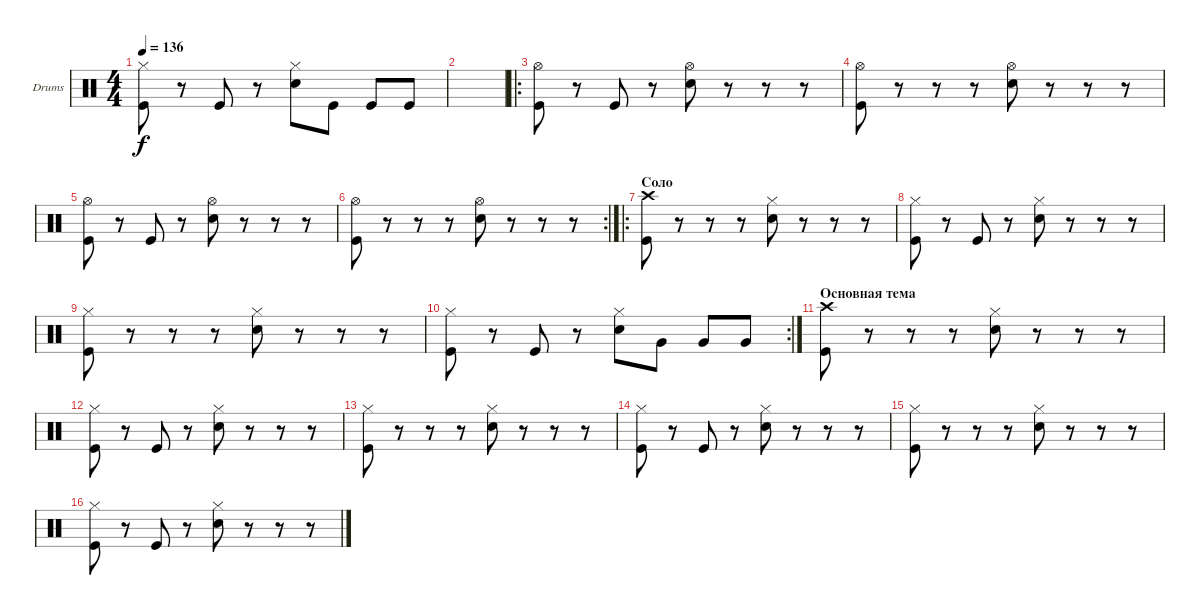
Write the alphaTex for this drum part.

\defaultSystemsLayout 4
\bracketExtendMode groupsimilarinstruments
\firstSystemTrackNameOrientation horizontal
\otherSystemsTrackNameOrientation horizontal
\track ("Барабаны" "Drums") {instrument percussion}
\staff {score}
\articulation defaults
\ts (4 4)
\tempo 136
\clef neutral
\ks c
("Hi-Hat (closed)" "Kick (hit)").8{dy f} r.8 "Kick (hit)".8 r.8 ("Hi-Hat (closed)" "Snare (hit) 2").8 "Kick (hit)".8 "Kick (hit)".8 "Kick (hit)".8 |
|
\ro
("Hi-Hat (open)" "Kick (hit)").8 r.8 "Kick (hit)".8 r.8 ("Hi-Hat (open)" "Snare (hit) 2").8 r.8 r.8 r.8 |
("Hi-Hat (open)" "Kick (hit)").8 r.8 r.8 r.8 ("Hi-Hat (open)" "Snare (hit) 2").8 r.8 r.8 r.8 |
("Hi-Hat (open)" "Kick (hit)").8 r.8 "Kick (hit)".8 r.8 ("Hi-Hat (open)" "Snare (hit) 2").8 r.8 r.8 r.8 |
\rc 2
("Hi-Hat (open)" "Kick (hit)").8 r.8 r.8 r.8 ("Hi-Hat (open)" "Snare (hit) 2").8 r.8 r.8 r.8 |
\ro
\section ("" "Соло")
("Crash high (hit)" "Kick (hit)").8 r.8 r.8 r.8 ("Hi-Hat (closed)" "Snare (hit) 2").8 r.8 r.8 r.8 |
("Hi-Hat (closed)" "Kick (hit)").8 r.8 "Kick (hit)".8 r.8 ("Hi-Hat (closed)" "Snare (hit) 2").8 r.8 r.8 r.8 |
("Hi-Hat (closed)" "Kick (hit)").8 r.8 r.8 r.8 ("Hi-Hat (closed)" "Snare (hit) 2").8 r.8 r.8 r.8 |
\rc 2
("Hi-Hat (closed)" "Kick (hit)").8 r.8 "Kick (hit)".8 r.8 ("Hi-Hat (closed)" "Snare (hit) 2").8 "Very Low Tom (hit)".8 "Very Low Tom (hit)".8 "Very Low Tom (hit)".8 |
\section ("" "Основная тема")
("Crash high (hit)" "Kick (hit)").8 r.8 r.8 r.8 ("Hi-Hat (closed)" "Snare (hit) 2").8 r.8 r.8 r.8 |
("Hi-Hat (closed)" "Kick (hit)").8 r.8 "Kick (hit)".8 r.8 ("Hi-Hat (closed)" "Snare (hit) 2").8 r.8 r.8 r.8 |
("Hi-Hat (closed)" "Kick (hit)").8 r.8 r.8 r.8 ("Hi-Hat (closed)" "Snare (hit) 2").8 r.8 r.8 r.8 |
("Hi-Hat (closed)" "Kick (hit)").8 r.8 "Kick (hit)".8 r.8 ("Hi-Hat (closed)" "Snare (hit) 2").8 r.8 r.8 r.8 |
("Hi-Hat (closed)" "Kick (hit)").8 r.8 r.8 r.8 ("Hi-Hat (closed)" "Snare (hit) 2").8 r.8 r.8 r.8 |
("Hi-Hat (closed)" "Kick (hit)").8 r.8 "Kick (hit)".8 r.8 ("Hi-Hat (closed)" "Snare (hit) 2").8 r.8 r.8 r.8
